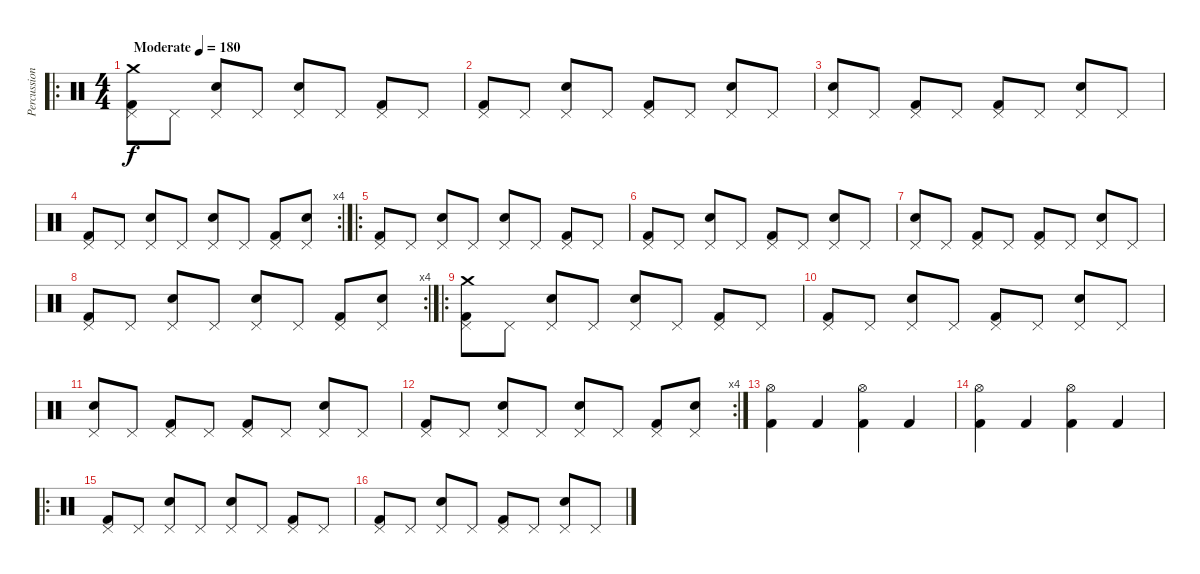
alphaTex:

\track ("Percussion" "Percussion") {instrument percussion}
\staff {score}
\articulation defaults
\ro
\ts (4 4)
\tempo (180 "Moderate")
\clef neutral
\ks c
("Crash medium (hit)" "Pedal Hi-Hat (hit)" "Kick (hit) 2").8{dy f} "Pedal Hi-Hat (hit)".8 ("Pedal Hi-Hat (hit)" "Electric Snare (hit)").8 "Pedal Hi-Hat (hit)".8 ("Pedal Hi-Hat (hit)" "Electric Snare (hit)").8 "Pedal Hi-Hat (hit)".8 ("Pedal Hi-Hat (hit)" "Kick (hit) 2").8 "Pedal Hi-Hat (hit)".8 |
("Pedal Hi-Hat (hit)" "Kick (hit) 2").8 "Pedal Hi-Hat (hit)".8 ("Pedal Hi-Hat (hit)" "Electric Snare (hit)").8 "Pedal Hi-Hat (hit)".8 ("Pedal Hi-Hat (hit)" "Kick (hit) 2").8 "Pedal Hi-Hat (hit)".8 ("Pedal Hi-Hat (hit)" "Electric Snare (hit)").8 "Pedal Hi-Hat (hit)".8 |
("Pedal Hi-Hat (hit)" "Electric Snare (hit)").8 "Pedal Hi-Hat (hit)".8 ("Pedal Hi-Hat (hit)" "Kick (hit) 2").8 "Pedal Hi-Hat (hit)".8 ("Pedal Hi-Hat (hit)" "Kick (hit) 2").8 "Pedal Hi-Hat (hit)".8 ("Pedal Hi-Hat (hit)" "Electric Snare (hit)").8 "Pedal Hi-Hat (hit)".8 |
\rc 4
("Pedal Hi-Hat (hit)" "Kick (hit) 2").8 "Pedal Hi-Hat (hit)".8 ("Pedal Hi-Hat (hit)" "Electric Snare (hit)").8 "Pedal Hi-Hat (hit)".8 ("Pedal Hi-Hat (hit)" "Electric Snare (hit)").8 "Pedal Hi-Hat (hit)".8 ("Pedal Hi-Hat (hit)" "Kick (hit) 2").8 ("Pedal Hi-Hat (hit)" "Electric Snare (hit)").8 |
\ro
("Pedal Hi-Hat (hit)" "Kick (hit) 2").8 "Pedal Hi-Hat (hit)".8 ("Pedal Hi-Hat (hit)" "Electric Snare (hit)").8 "Pedal Hi-Hat (hit)".8 ("Pedal Hi-Hat (hit)" "Electric Snare (hit)").8 "Pedal Hi-Hat (hit)".8 ("Pedal Hi-Hat (hit)" "Kick (hit) 2").8 "Pedal Hi-Hat (hit)".8 |
("Pedal Hi-Hat (hit)" "Kick (hit) 2").8 "Pedal Hi-Hat (hit)".8 ("Pedal Hi-Hat (hit)" "Electric Snare (hit)").8 "Pedal Hi-Hat (hit)".8 ("Pedal Hi-Hat (hit)" "Kick (hit) 2").8 "Pedal Hi-Hat (hit)".8 ("Pedal Hi-Hat (hit)" "Electric Snare (hit)").8 "Pedal Hi-Hat (hit)".8 |
("Pedal Hi-Hat (hit)" "Electric Snare (hit)").8 "Pedal Hi-Hat (hit)".8 ("Pedal Hi-Hat (hit)" "Kick (hit) 2").8 "Pedal Hi-Hat (hit)".8 ("Pedal Hi-Hat (hit)" "Kick (hit) 2").8 "Pedal Hi-Hat (hit)".8 ("Pedal Hi-Hat (hit)" "Electric Snare (hit)").8 "Pedal Hi-Hat (hit)".8 |
\rc 4
("Pedal Hi-Hat (hit)" "Kick (hit) 2").8 "Pedal Hi-Hat (hit)".8 ("Pedal Hi-Hat (hit)" "Electric Snare (hit)").8 "Pedal Hi-Hat (hit)".8 ("Pedal Hi-Hat (hit)" "Electric Snare (hit)").8 "Pedal Hi-Hat (hit)".8 ("Pedal Hi-Hat (hit)" "Kick (hit) 2").8 ("Pedal Hi-Hat (hit)" "Electric Snare (hit)").8 |
\ro
("Crash medium (hit)" "Pedal Hi-Hat (hit)" "Kick (hit) 2").8 "Pedal Hi-Hat (hit)".8 ("Pedal Hi-Hat (hit)" "Electric Snare (hit)").8 "Pedal Hi-Hat (hit)".8 ("Pedal Hi-Hat (hit)" "Electric Snare (hit)").8 "Pedal Hi-Hat (hit)".8 ("Pedal Hi-Hat (hit)" "Kick (hit) 2").8 "Pedal Hi-Hat (hit)".8 |
("Pedal Hi-Hat (hit)" "Kick (hit) 2").8 "Pedal Hi-Hat (hit)".8 ("Pedal Hi-Hat (hit)" "Electric Snare (hit)").8 "Pedal Hi-Hat (hit)".8 ("Pedal Hi-Hat (hit)" "Kick (hit) 2").8 "Pedal Hi-Hat (hit)".8 ("Pedal Hi-Hat (hit)" "Electric Snare (hit)").8 "Pedal Hi-Hat (hit)".8 |
("Pedal Hi-Hat (hit)" "Electric Snare (hit)").8 "Pedal Hi-Hat (hit)".8 ("Pedal Hi-Hat (hit)" "Kick (hit) 2").8 "Pedal Hi-Hat (hit)".8 ("Pedal Hi-Hat (hit)" "Kick (hit) 2").8 "Pedal Hi-Hat (hit)".8 ("Pedal Hi-Hat (hit)" "Electric Snare (hit)").8 "Pedal Hi-Hat (hit)".8 |
\rc 4
("Pedal Hi-Hat (hit)" "Kick (hit) 2").8 "Pedal Hi-Hat (hit)".8 ("Pedal Hi-Hat (hit)" "Electric Snare (hit)").8 "Pedal Hi-Hat (hit)".8 ("Pedal Hi-Hat (hit)" "Electric Snare (hit)").8 "Pedal Hi-Hat (hit)".8 ("Pedal Hi-Hat (hit)" "Kick (hit) 2").8 ("Pedal Hi-Hat (hit)" "Electric Snare (hit)").8 |
("Hi-Hat (open)" "Kick (hit) 2").4 "Kick (hit) 2".4 ("Hi-Hat (open)" "Kick (hit) 2").4 "Kick (hit) 2".4 |
("Hi-Hat (open)" "Kick (hit) 2").4 "Kick (hit) 2".4 ("Hi-Hat (open)" "Kick (hit) 2").4 "Kick (hit) 2".4 |
\ro
("Pedal Hi-Hat (hit)" "Kick (hit) 2").8 "Pedal Hi-Hat (hit)".8 ("Pedal Hi-Hat (hit)" "Electric Snare (hit)").8 "Pedal Hi-Hat (hit)".8 ("Pedal Hi-Hat (hit)" "Electric Snare (hit)").8 "Pedal Hi-Hat (hit)".8 ("Pedal Hi-Hat (hit)" "Kick (hit) 2").8 "Pedal Hi-Hat (hit)".8 |
("Pedal Hi-Hat (hit)" "Kick (hit) 2").8 "Pedal Hi-Hat (hit)".8 ("Pedal Hi-Hat (hit)" "Electric Snare (hit)").8 "Pedal Hi-Hat (hit)".8 ("Pedal Hi-Hat (hit)" "Kick (hit) 2").8 "Pedal Hi-Hat (hit)".8 ("Pedal Hi-Hat (hit)" "Electric Snare (hit)").8 "Pedal Hi-Hat (hit)".8
